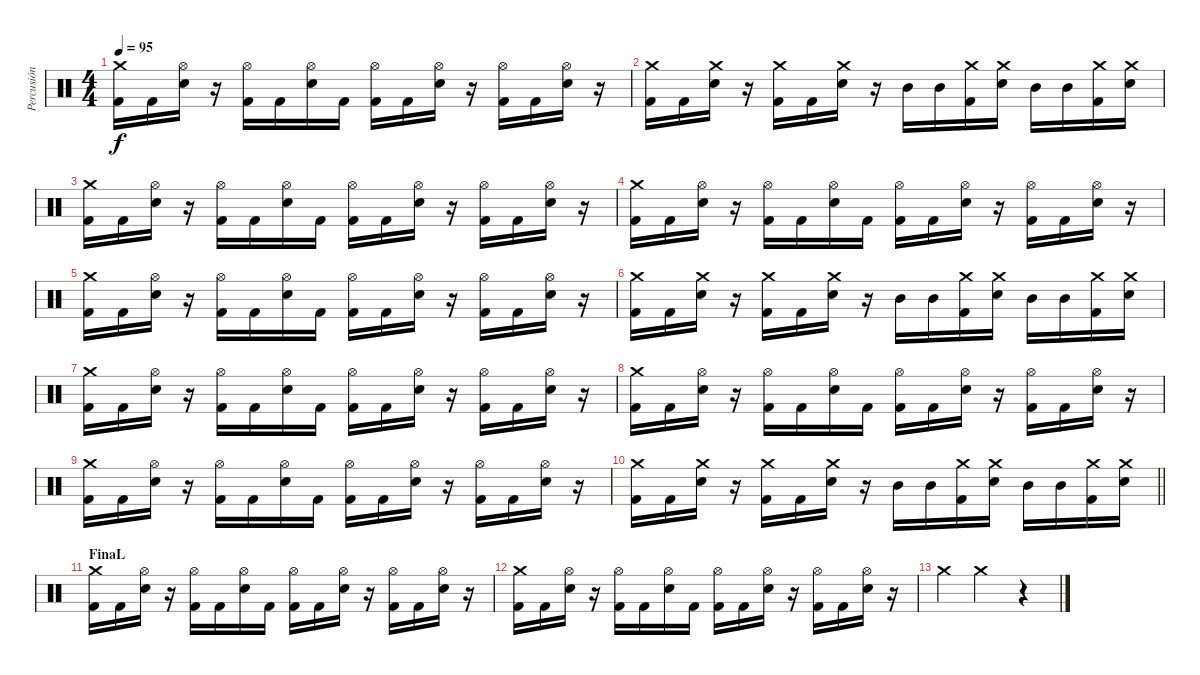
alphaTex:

\track ("Percusión" "Percusión") {instrument percussion}
\staff {score}
\articulation defaults
\ts (4 4)
\tempo 95
\clef neutral
\ks c
("Crash medium (hit)" "Kick (hit) 2").16{dy f} "Kick (hit) 2".16 ("Hi-Hat (open)" "Electric Snare (hit)").16 r.16 ("Hi-Hat (open)" "Kick (hit) 2").16 "Kick (hit) 2".16 ("Hi-Hat (open)" "Electric Snare (hit)").16 "Kick (hit) 2".16 ("Hi-Hat (open)" "Kick (hit) 2").16 "Kick (hit) 2".16 ("Hi-Hat (open)" "Electric Snare (hit)").16 r.16 ("Hi-Hat (open)" "Kick (hit) 2").16 "Kick (hit) 2".16 ("Hi-Hat (open)" "Electric Snare (hit)").16 r.16 |
("Crash medium (hit)" "Kick (hit) 2").16 "Kick (hit) 2".16 ("Crash medium (hit)" "Electric Snare (hit)").16 r.16 ("Crash medium (hit)" "Kick (hit) 2").16 "Kick (hit) 2".16 ("Crash medium (hit)" "Electric Snare (hit)").16 r.16 "Mid Tom (hit)".16 "Mid Tom (hit)".16 ("Crash medium (hit)" "Kick (hit) 2").16 ("Crash medium (hit)" "Electric Snare (hit)").16 "Mid Tom (hit)".16 "Mid Tom (hit)".16 ("Crash medium (hit)" "Kick (hit) 2").16 ("Crash medium (hit)" "Electric Snare (hit)").16 |
("Crash medium (hit)" "Kick (hit) 2").16 "Kick (hit) 2".16 ("Hi-Hat (open)" "Electric Snare (hit)").16 r.16 ("Hi-Hat (open)" "Kick (hit) 2").16 "Kick (hit) 2".16 ("Hi-Hat (open)" "Electric Snare (hit)").16 "Kick (hit) 2".16 ("Hi-Hat (open)" "Kick (hit) 2").16 "Kick (hit) 2".16 ("Hi-Hat (open)" "Electric Snare (hit)").16 r.16 ("Hi-Hat (open)" "Kick (hit) 2").16 "Kick (hit) 2".16 ("Hi-Hat (open)" "Electric Snare (hit)").16 r.16 |
("Crash medium (hit)" "Kick (hit) 2").16 "Kick (hit) 2".16 ("Hi-Hat (open)" "Electric Snare (hit)").16 r.16 ("Hi-Hat (open)" "Kick (hit) 2").16 "Kick (hit) 2".16 ("Hi-Hat (open)" "Electric Snare (hit)").16 "Kick (hit) 2".16 ("Hi-Hat (open)" "Kick (hit) 2").16 "Kick (hit) 2".16 ("Hi-Hat (open)" "Electric Snare (hit)").16 r.16 ("Hi-Hat (open)" "Kick (hit) 2").16 "Kick (hit) 2".16 ("Hi-Hat (open)" "Electric Snare (hit)").16 r.16 |
("Crash medium (hit)" "Kick (hit) 2").16 "Kick (hit) 2".16 ("Hi-Hat (open)" "Electric Snare (hit)").16 r.16 ("Hi-Hat (open)" "Kick (hit) 2").16 "Kick (hit) 2".16 ("Hi-Hat (open)" "Electric Snare (hit)").16 "Kick (hit) 2".16 ("Hi-Hat (open)" "Kick (hit) 2").16 "Kick (hit) 2".16 ("Hi-Hat (open)" "Electric Snare (hit)").16 r.16 ("Hi-Hat (open)" "Kick (hit) 2").16 "Kick (hit) 2".16 ("Hi-Hat (open)" "Electric Snare (hit)").16 r.16 |
("Crash medium (hit)" "Kick (hit) 2").16 "Kick (hit) 2".16 ("Crash medium (hit)" "Electric Snare (hit)").16 r.16 ("Crash medium (hit)" "Kick (hit) 2").16 "Kick (hit) 2".16 ("Crash medium (hit)" "Electric Snare (hit)").16 r.16 "Mid Tom (hit)".16 "Mid Tom (hit)".16 ("Crash medium (hit)" "Kick (hit) 2").16 ("Crash medium (hit)" "Electric Snare (hit)").16 "Mid Tom (hit)".16 "Mid Tom (hit)".16 ("Crash medium (hit)" "Kick (hit) 2").16 ("Crash medium (hit)" "Electric Snare (hit)").16 |
("Crash medium (hit)" "Kick (hit) 2").16 "Kick (hit) 2".16 ("Hi-Hat (open)" "Electric Snare (hit)").16 r.16 ("Hi-Hat (open)" "Kick (hit) 2").16 "Kick (hit) 2".16 ("Hi-Hat (open)" "Electric Snare (hit)").16 "Kick (hit) 2".16 ("Hi-Hat (open)" "Kick (hit) 2").16 "Kick (hit) 2".16 ("Hi-Hat (open)" "Electric Snare (hit)").16 r.16 ("Hi-Hat (open)" "Kick (hit) 2").16 "Kick (hit) 2".16 ("Hi-Hat (open)" "Electric Snare (hit)").16 r.16 |
("Crash medium (hit)" "Kick (hit) 2").16 "Kick (hit) 2".16 ("Hi-Hat (open)" "Electric Snare (hit)").16 r.16 ("Hi-Hat (open)" "Kick (hit) 2").16 "Kick (hit) 2".16 ("Hi-Hat (open)" "Electric Snare (hit)").16 "Kick (hit) 2".16 ("Hi-Hat (open)" "Kick (hit) 2").16 "Kick (hit) 2".16 ("Hi-Hat (open)" "Electric Snare (hit)").16 r.16 ("Hi-Hat (open)" "Kick (hit) 2").16 "Kick (hit) 2".16 ("Hi-Hat (open)" "Electric Snare (hit)").16 r.16 |
("Crash medium (hit)" "Kick (hit) 2").16 "Kick (hit) 2".16 ("Hi-Hat (open)" "Electric Snare (hit)").16 r.16 ("Hi-Hat (open)" "Kick (hit) 2").16 "Kick (hit) 2".16 ("Hi-Hat (open)" "Electric Snare (hit)").16 "Kick (hit) 2".16 ("Hi-Hat (open)" "Kick (hit) 2").16 "Kick (hit) 2".16 ("Hi-Hat (open)" "Electric Snare (hit)").16 r.16 ("Hi-Hat (open)" "Kick (hit) 2").16 "Kick (hit) 2".16 ("Hi-Hat (open)" "Electric Snare (hit)").16 r.16 |
\barLineRight lightlight
("Crash medium (hit)" "Kick (hit) 2").16 "Kick (hit) 2".16 ("Crash medium (hit)" "Electric Snare (hit)").16 r.16 ("Crash medium (hit)" "Kick (hit) 2").16 "Kick (hit) 2".16 ("Crash medium (hit)" "Electric Snare (hit)").16 r.16 "Mid Tom (hit)".16 "Mid Tom (hit)".16 ("Crash medium (hit)" "Kick (hit) 2").16 ("Crash medium (hit)" "Electric Snare (hit)").16 "Mid Tom (hit)".16 "Mid Tom (hit)".16 ("Crash medium (hit)" "Kick (hit) 2").16 ("Crash medium (hit)" "Electric Snare (hit)").16 |
\section ("" "FinaL")
("Crash medium (hit)" "Kick (hit) 2").16 "Kick (hit) 2".16 ("Hi-Hat (open)" "Electric Snare (hit)").16 r.16 ("Hi-Hat (open)" "Kick (hit) 2").16 "Kick (hit) 2".16 ("Hi-Hat (open)" "Electric Snare (hit)").16 "Kick (hit) 2".16 ("Hi-Hat (open)" "Kick (hit) 2").16 "Kick (hit) 2".16 ("Hi-Hat (open)" "Electric Snare (hit)").16 r.16 ("Hi-Hat (open)" "Kick (hit) 2").16 "Kick (hit) 2".16 ("Hi-Hat (open)" "Electric Snare (hit)").16 r.16 |
("Crash medium (hit)" "Kick (hit) 2").16 "Kick (hit) 2".16 ("Hi-Hat (open)" "Electric Snare (hit)").16 r.16 ("Hi-Hat (open)" "Kick (hit) 2").16 "Kick (hit) 2".16 ("Hi-Hat (open)" "Electric Snare (hit)").16 "Kick (hit) 2".16 ("Hi-Hat (open)" "Kick (hit) 2").16 "Kick (hit) 2".16 ("Hi-Hat (open)" "Electric Snare (hit)").16 r.16 ("Hi-Hat (open)" "Kick (hit) 2").16 "Kick (hit) 2".16 ("Hi-Hat (open)" "Electric Snare (hit)").16 r.16 |
"Crash medium (hit)".4 "Crash medium (hit)".2 r.4
